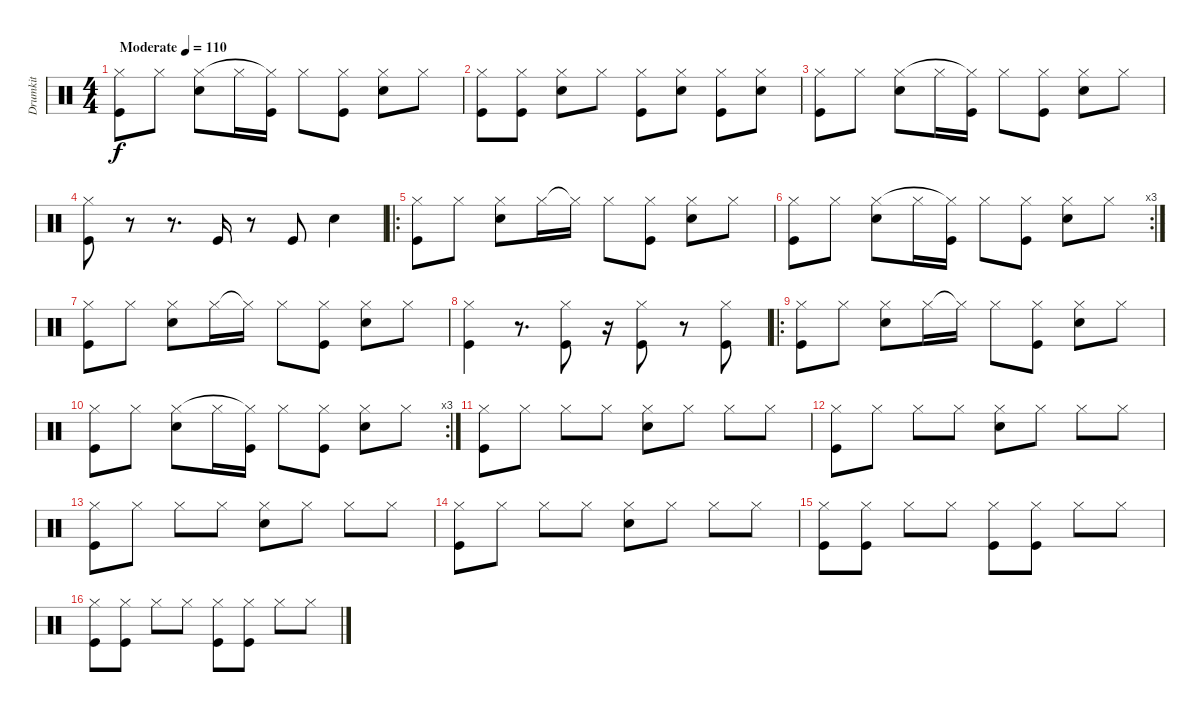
\track ("Drumkit" "Drumkit") {instrument percussion}
\staff {score}
\articulation defaults
\ts (4 4)
\tempo (110 "Moderate")
\clef neutral
\ks c
("Kick (hit)" "Hi-Hat (closed)").8{dy f} "Hi-Hat (closed)".8 ("Snare (hit) 2" "Hi-Hat (closed)").8 "Hi-Hat (closed)".16 ("Kick (hit)" "Hi-Hat (closed)"{t}).16 "Hi-Hat (closed)".8 ("Kick (hit)" "Hi-Hat (closed)").8 ("Snare (hit) 2" "Hi-Hat (closed)").8 "Hi-Hat (closed)".8 |
("Kick (hit)" "Hi-Hat (closed)").8 ("Kick (hit)" "Hi-Hat (closed)").8 ("Snare (hit) 2" "Hi-Hat (closed)").8 "Hi-Hat (closed)".8 ("Kick (hit)" "Hi-Hat (closed)").8 ("Snare (hit) 2" "Hi-Hat (closed)").8 ("Kick (hit)" "Hi-Hat (closed)").8 ("Snare (hit) 2" "Hi-Hat (closed)").8 |
("Kick (hit)" "Hi-Hat (closed)").8 "Hi-Hat (closed)".8 ("Snare (hit) 2" "Hi-Hat (closed)").8 "Hi-Hat (closed)".16 ("Kick (hit)" "Hi-Hat (closed)"{t}).16 "Hi-Hat (closed)".8 ("Kick (hit)" "Hi-Hat (closed)").8 ("Snare (hit) 2" "Hi-Hat (closed)").8 "Hi-Hat (closed)".8 |
("Kick (hit)" "Hi-Hat (closed)").8 r.8 r.8{d} "Kick (hit)".16 r.8 "Kick (hit)".8 "Snare (hit) 2".4 |
\ro
("Kick (hit)" "Hi-Hat (closed)").8 "Hi-Hat (closed)".8 ("Snare (hit) 2" "Hi-Hat (closed)").8 "Hi-Hat (closed)".16 "Hi-Hat (closed)"{t}.16 "Hi-Hat (closed)".8 ("Kick (hit)" "Hi-Hat (closed)").8 ("Snare (hit) 2" "Hi-Hat (closed)").8 "Hi-Hat (closed)".8 |
\rc 3
("Kick (hit)" "Hi-Hat (closed)").8 "Hi-Hat (closed)".8 ("Snare (hit) 2" "Hi-Hat (closed)").8 "Hi-Hat (closed)".16 ("Kick (hit)" "Hi-Hat (closed)"{t}).16 "Hi-Hat (closed)".8 ("Kick (hit)" "Hi-Hat (closed)").8 ("Snare (hit) 2" "Hi-Hat (closed)").8 "Hi-Hat (closed)".8 |
("Kick (hit)" "Hi-Hat (closed)").8 "Hi-Hat (closed)".8 ("Snare (hit) 2" "Hi-Hat (closed)").8 "Hi-Hat (closed)".16 "Hi-Hat (closed)"{t}.16 "Hi-Hat (closed)".8 ("Kick (hit)" "Hi-Hat (closed)").8 ("Snare (hit) 2" "Hi-Hat (closed)").8 "Hi-Hat (closed)".8 |
("Kick (hit)" "Hi-Hat (closed)").4 r.8{d} ("Kick (hit)" "Hi-Hat (closed)").8 r.16 ("Kick (hit)" "Hi-Hat (closed)").8 r.8 ("Kick (hit)" "Hi-Hat (closed)").8 |
\ro
("Kick (hit)" "Hi-Hat (closed)").8 "Hi-Hat (closed)".8 ("Snare (hit) 2" "Hi-Hat (closed)").8 "Hi-Hat (closed)".16 "Hi-Hat (closed)"{t}.16 "Hi-Hat (closed)".8 ("Kick (hit)" "Hi-Hat (closed)").8 ("Snare (hit) 2" "Hi-Hat (closed)").8 "Hi-Hat (closed)".8 |
\rc 3
("Kick (hit)" "Hi-Hat (closed)").8 "Hi-Hat (closed)".8 ("Snare (hit) 2" "Hi-Hat (closed)").8 "Hi-Hat (closed)".16 ("Kick (hit)" "Hi-Hat (closed)"{t}).16 "Hi-Hat (closed)".8 ("Kick (hit)" "Hi-Hat (closed)").8 ("Snare (hit) 2" "Hi-Hat (closed)").8 "Hi-Hat (closed)".8 |
("Kick (hit)" "Hi-Hat (closed)").8 "Hi-Hat (closed)".8 "Hi-Hat (closed)".8 "Hi-Hat (closed)".8 ("Snare (hit) 2" "Hi-Hat (closed)").8 "Hi-Hat (closed)".8 "Hi-Hat (closed)".8 "Hi-Hat (closed)".8 |
("Kick (hit)" "Hi-Hat (closed)").8 "Hi-Hat (closed)".8 "Hi-Hat (closed)".8 "Hi-Hat (closed)".8 ("Snare (hit) 2" "Hi-Hat (closed)").8 "Hi-Hat (closed)".8 "Hi-Hat (closed)".8 "Hi-Hat (closed)".8 |
("Kick (hit)" "Hi-Hat (closed)").8 "Hi-Hat (closed)".8 "Hi-Hat (closed)".8 "Hi-Hat (closed)".8 ("Snare (hit) 2" "Hi-Hat (closed)").8 "Hi-Hat (closed)".8 "Hi-Hat (closed)".8 "Hi-Hat (closed)".8 |
("Kick (hit)" "Hi-Hat (closed)").8 "Hi-Hat (closed)".8 "Hi-Hat (closed)".8 "Hi-Hat (closed)".8 ("Snare (hit) 2" "Hi-Hat (closed)").8 "Hi-Hat (closed)".8 "Hi-Hat (closed)".8 "Hi-Hat (closed)".8 |
("Kick (hit)" "Hi-Hat (closed)").8 ("Kick (hit)" "Hi-Hat (closed)").8 "Hi-Hat (closed)".8 "Hi-Hat (closed)".8 ("Kick (hit)" "Hi-Hat (closed)").8 ("Kick (hit)" "Hi-Hat (closed)").8 "Hi-Hat (closed)".8 "Hi-Hat (closed)".8 |
("Kick (hit)" "Hi-Hat (closed)").8 ("Kick (hit)" "Hi-Hat (closed)").8 "Hi-Hat (closed)".8 "Hi-Hat (closed)".8 ("Kick (hit)" "Hi-Hat (closed)").8 ("Kick (hit)" "Hi-Hat (closed)").8 "Hi-Hat (closed)".8 "Hi-Hat (closed)".8
